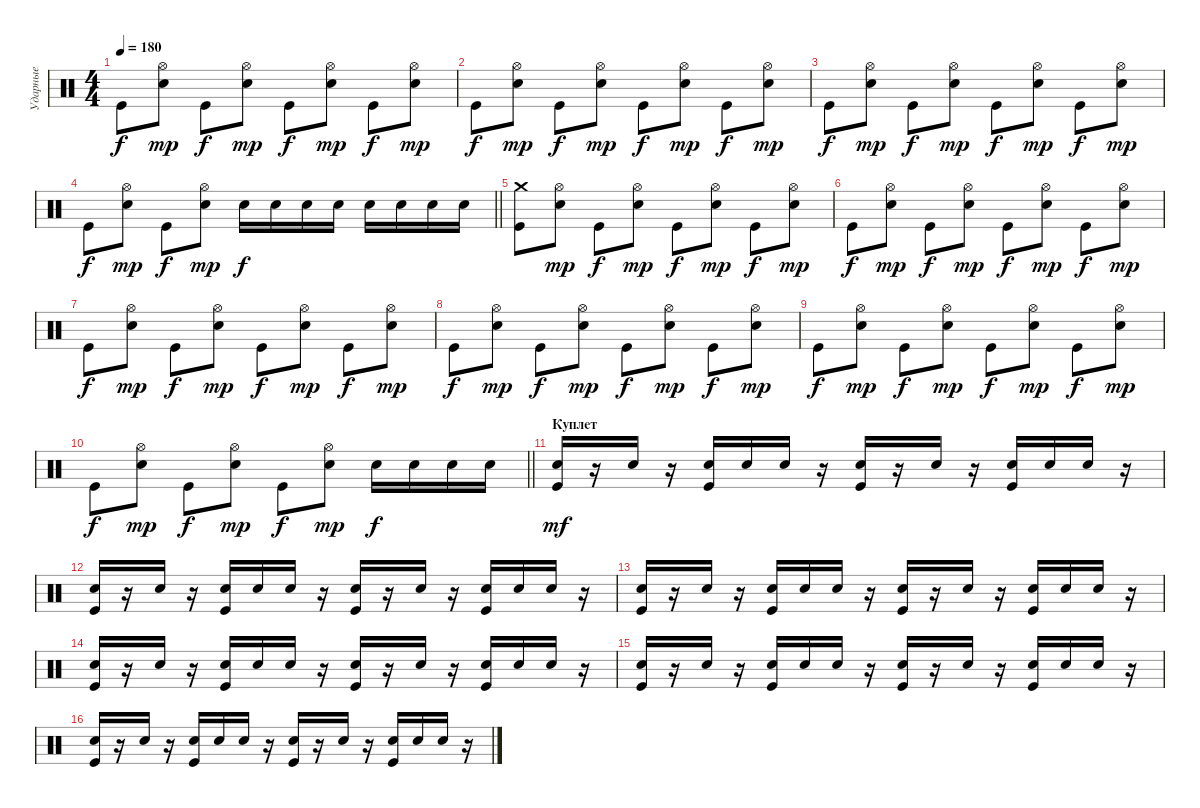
\track ("Ударные" "Ударные") {instrument percussion}
\staff {score}
\articulation defaults
\ts (4 4)
\tempo 180
\clef neutral
\ks c "Kick (hit)".8{dy f}
("Electric Snare (hit)" "Hi-Hat (open)").8{dy mp} "Kick (hit)".8{dy f} ("Electric Snare (hit)" "Hi-Hat (open)").8{dy mp} "Kick (hit)".8{dy f} ("Electric Snare (hit)" "Hi-Hat (open)").8{dy mp} "Kick (hit)".8{dy f} ("Electric Snare (hit)" "Hi-Hat (open)").8{dy mp} |
"Kick (hit)".8{dy f} ("Electric Snare (hit)" "Hi-Hat (open)").8{dy mp} "Kick (hit)".8{dy f} ("Electric Snare (hit)" "Hi-Hat (open)").8{dy mp} "Kick (hit)".8{dy f} ("Electric Snare (hit)" "Hi-Hat (open)").8{dy mp} "Kick (hit)".8{dy f} ("Electric Snare (hit)" "Hi-Hat (open)").8{dy mp} |
"Kick (hit)".8{dy f} ("Electric Snare (hit)" "Hi-Hat (open)").8{dy mp} "Kick (hit)".8{dy f} ("Electric Snare (hit)" "Hi-Hat (open)").8{dy mp} "Kick (hit)".8{dy f} ("Electric Snare (hit)" "Hi-Hat (open)").8{dy mp} "Kick (hit)".8{dy f} ("Electric Snare (hit)" "Hi-Hat (open)").8{dy mp} |
\barLineRight lightlight "Kick (hit)".8{dy f}
("Electric Snare (hit)" "Hi-Hat (open)").8{dy mp} "Kick (hit)".8{dy f} ("Electric Snare (hit)" "Hi-Hat (open)").8{dy mp} "Electric Snare (hit)".16{dy f} "Electric Snare (hit)".16 "Electric Snare (hit)".16 "Electric Snare (hit)".16 "Electric Snare (hit)".16 "Electric Snare (hit)".16 "Electric Snare (hit)".16 "Electric Snare (hit)".16 |
("Kick (hit)" "Crash medium (hit)").8 ("Electric Snare (hit)" "Hi-Hat (open)").8{dy mp} "Kick (hit)".8{dy f} ("Electric Snare (hit)" "Hi-Hat (open)").8{dy mp} "Kick (hit)".8{dy f} ("Electric Snare (hit)" "Hi-Hat (open)").8{dy mp} "Kick (hit)".8{dy f} ("Electric Snare (hit)" "Hi-Hat (open)").8{dy mp} |
"Kick (hit)".8{dy f} ("Electric Snare (hit)" "Hi-Hat (open)").8{dy mp} "Kick (hit)".8{dy f} ("Electric Snare (hit)" "Hi-Hat (open)").8{dy mp} "Kick (hit)".8{dy f} ("Electric Snare (hit)" "Hi-Hat (open)").8{dy mp} "Kick (hit)".8{dy f} ("Electric Snare (hit)" "Hi-Hat (open)").8{dy mp} |
"Kick (hit)".8{dy f} ("Electric Snare (hit)" "Hi-Hat (open)").8{dy mp} "Kick (hit)".8{dy f} ("Electric Snare (hit)" "Hi-Hat (open)").8{dy mp} "Kick (hit)".8{dy f} ("Electric Snare (hit)" "Hi-Hat (open)").8{dy mp} "Kick (hit)".8{dy f} ("Electric Snare (hit)" "Hi-Hat (open)").8{dy mp} |
"Kick (hit)".8{dy f} ("Electric Snare (hit)" "Hi-Hat (open)").8{dy mp} "Kick (hit)".8{dy f} ("Electric Snare (hit)" "Hi-Hat (open)").8{dy mp} "Kick (hit)".8{dy f} ("Electric Snare (hit)" "Hi-Hat (open)").8{dy mp} "Kick (hit)".8{dy f} ("Electric Snare (hit)" "Hi-Hat (open)").8{dy mp} |
"Kick (hit)".8{dy f} ("Electric Snare (hit)" "Hi-Hat (open)").8{dy mp} "Kick (hit)".8{dy f} ("Electric Snare (hit)" "Hi-Hat (open)").8{dy mp} "Kick (hit)".8{dy f} ("Electric Snare (hit)" "Hi-Hat (open)").8{dy mp} "Kick (hit)".8{dy f} ("Electric Snare (hit)" "Hi-Hat (open)").8{dy mp} |
\barLineRight lightlight "Kick (hit)".8{dy f}
("Electric Snare (hit)" "Hi-Hat (open)").8{dy mp} "Kick (hit)".8{dy f} ("Electric Snare (hit)" "Hi-Hat (open)").8{dy mp} "Kick (hit)".8{dy f} ("Electric Snare (hit)" "Hi-Hat (open)").8{dy mp} "Electric Snare (hit)".16{dy f} "Electric Snare (hit)".16 "Electric Snare (hit)".16 "Electric Snare (hit)".16 |
\section ("" "Куплет")
("Electric Snare (hit)" "Kick (hit)").16{dy mf} r.16 "Electric Snare (hit)".16 r.16 ("Electric Snare (hit)" "Kick (hit)").16 "Electric Snare (hit)".16 "Electric Snare (hit)".16 r.16 ("Electric Snare (hit)" "Kick (hit)").16 r.16 "Electric Snare (hit)".16 r.16 ("Electric Snare (hit)" "Kick (hit)").16 "Electric Snare (hit)".16 "Electric Snare (hit)".16 r.16 |
("Electric Snare (hit)" "Kick (hit)").16 r.16 "Electric Snare (hit)".16 r.16 ("Electric Snare (hit)" "Kick (hit)").16 "Electric Snare (hit)".16 "Electric Snare (hit)".16 r.16 ("Electric Snare (hit)" "Kick (hit)").16 r.16 "Electric Snare (hit)".16 r.16 ("Electric Snare (hit)" "Kick (hit)").16 "Electric Snare (hit)".16 "Electric Snare (hit)".16 r.16 |
("Electric Snare (hit)" "Kick (hit)").16 r.16 "Electric Snare (hit)".16 r.16 ("Electric Snare (hit)" "Kick (hit)").16 "Electric Snare (hit)".16 "Electric Snare (hit)".16 r.16 ("Electric Snare (hit)" "Kick (hit)").16 r.16 "Electric Snare (hit)".16 r.16 ("Electric Snare (hit)" "Kick (hit)").16 "Electric Snare (hit)".16 "Electric Snare (hit)".16 r.16 |
("Electric Snare (hit)" "Kick (hit)").16 r.16 "Electric Snare (hit)".16 r.16 ("Electric Snare (hit)" "Kick (hit)").16 "Electric Snare (hit)".16 "Electric Snare (hit)".16 r.16 ("Electric Snare (hit)" "Kick (hit)").16 r.16 "Electric Snare (hit)".16 r.16 ("Electric Snare (hit)" "Kick (hit)").16 "Electric Snare (hit)".16 "Electric Snare (hit)".16 r.16 |
("Electric Snare (hit)" "Kick (hit)").16 r.16 "Electric Snare (hit)".16 r.16 ("Electric Snare (hit)" "Kick (hit)").16 "Electric Snare (hit)".16 "Electric Snare (hit)".16 r.16 ("Electric Snare (hit)" "Kick (hit)").16 r.16 "Electric Snare (hit)".16 r.16 ("Electric Snare (hit)" "Kick (hit)").16 "Electric Snare (hit)".16 "Electric Snare (hit)".16 r.16 |
("Electric Snare (hit)" "Kick (hit)").16 r.16 "Electric Snare (hit)".16 r.16 ("Electric Snare (hit)" "Kick (hit)").16 "Electric Snare (hit)".16 "Electric Snare (hit)".16 r.16 ("Electric Snare (hit)" "Kick (hit)").16 r.16 "Electric Snare (hit)".16 r.16 ("Electric Snare (hit)" "Kick (hit)").16 "Electric Snare (hit)".16 "Electric Snare (hit)".16 r.16
